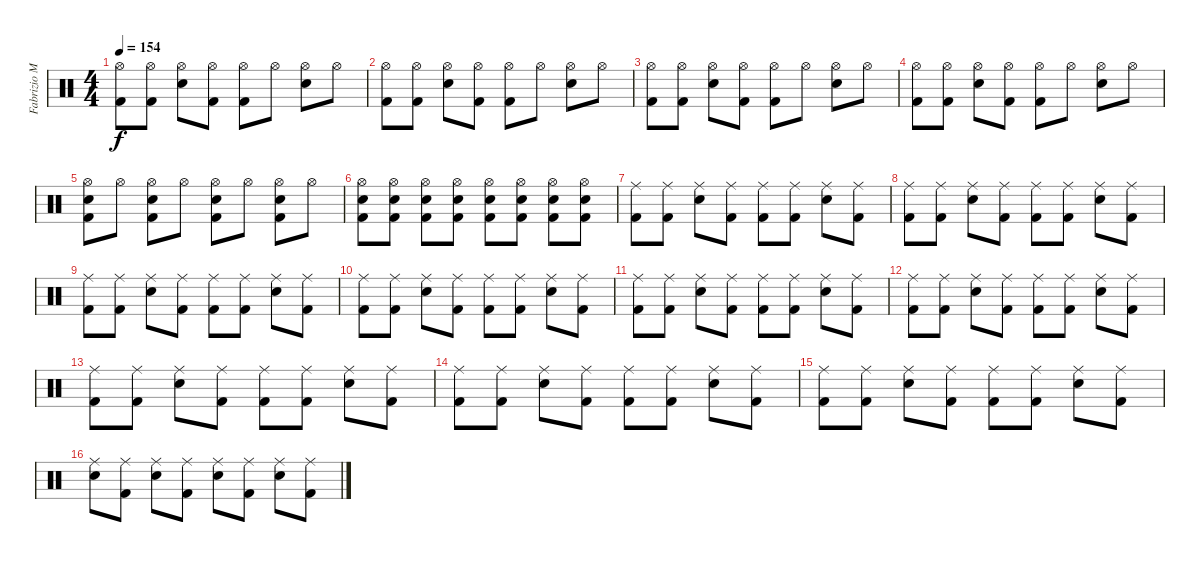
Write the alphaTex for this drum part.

\track ("Fabrizio Moretti" "Fabrizio M") {instrument percussion}
\staff {score}
\articulation defaults
\ts (4 4)
\tempo 154
\clef neutral
\ks c
("Hi-Hat (open)" "Kick (hit) 2").8{dy f} ("Hi-Hat (open)" "Kick (hit) 2").8 ("Hi-Hat (open)" "Electric Snare (hit)").8 ("Hi-Hat (open)" "Kick (hit) 2").8 ("Hi-Hat (open)" "Kick (hit) 2").8 "Hi-Hat (open)".8 ("Hi-Hat (open)" "Electric Snare (hit)").8 "Hi-Hat (open)".8 |
("Hi-Hat (open)" "Kick (hit) 2").8 ("Hi-Hat (open)" "Kick (hit) 2").8 ("Hi-Hat (open)" "Electric Snare (hit)").8 ("Hi-Hat (open)" "Kick (hit) 2").8 ("Hi-Hat (open)" "Kick (hit) 2").8 "Hi-Hat (open)".8 ("Hi-Hat (open)" "Electric Snare (hit)").8 "Hi-Hat (open)".8 |
("Hi-Hat (open)" "Kick (hit) 2").8 ("Hi-Hat (open)" "Kick (hit) 2").8 ("Hi-Hat (open)" "Electric Snare (hit)").8 ("Hi-Hat (open)" "Kick (hit) 2").8 ("Hi-Hat (open)" "Kick (hit) 2").8 "Hi-Hat (open)".8 ("Hi-Hat (open)" "Electric Snare (hit)").8 "Hi-Hat (open)".8 |
("Hi-Hat (open)" "Kick (hit) 2").8 ("Hi-Hat (open)" "Kick (hit) 2").8 ("Hi-Hat (open)" "Electric Snare (hit)").8 ("Hi-Hat (open)" "Kick (hit) 2").8 ("Hi-Hat (open)" "Kick (hit) 2").8 "Hi-Hat (open)".8 ("Hi-Hat (open)" "Electric Snare (hit)").8 "Hi-Hat (open)".8 |
("Hi-Hat (open)" "Kick (hit) 2" "Electric Snare (hit)").8 "Hi-Hat (open)".8 ("Hi-Hat (open)" "Kick (hit) 2" "Electric Snare (hit)").8 "Hi-Hat (open)".8 ("Hi-Hat (open)" "Kick (hit) 2" "Electric Snare (hit)").8 "Hi-Hat (open)".8 ("Hi-Hat (open)" "Kick (hit) 2" "Electric Snare (hit)").8 "Hi-Hat (open)".8 |
("Hi-Hat (open)" "Kick (hit) 2" "Electric Snare (hit)").8 ("Hi-Hat (open)" "Kick (hit) 2" "Electric Snare (hit)").8 ("Hi-Hat (open)" "Kick (hit) 2" "Electric Snare (hit)").8 ("Hi-Hat (open)" "Kick (hit) 2" "Electric Snare (hit)").8 ("Hi-Hat (open)" "Kick (hit) 2" "Electric Snare (hit)").8 ("Hi-Hat (open)" "Kick (hit) 2" "Electric Snare (hit)").8 ("Hi-Hat (open)" "Kick (hit) 2" "Electric Snare (hit)").8 ("Hi-Hat (open)" "Kick (hit) 2" "Electric Snare (hit)").8 |
("Ride (middle)" "Kick (hit) 2").8 ("Ride (middle)" "Kick (hit) 2").8 ("Ride (middle)" "Electric Snare (hit)").8 ("Ride (middle)" "Kick (hit) 2").8 ("Ride (middle)" "Kick (hit) 2").8 ("Ride (middle)" "Kick (hit) 2").8 ("Ride (middle)" "Electric Snare (hit)").8 ("Ride (middle)" "Kick (hit) 2").8 |
("Ride (middle)" "Kick (hit) 2").8 ("Ride (middle)" "Kick (hit) 2").8 ("Ride (middle)" "Electric Snare (hit)").8 ("Ride (middle)" "Kick (hit) 2").8 ("Ride (middle)" "Kick (hit) 2").8 ("Ride (middle)" "Kick (hit) 2").8 ("Ride (middle)" "Electric Snare (hit)").8 ("Ride (middle)" "Kick (hit) 2").8 |
("Ride (middle)" "Kick (hit) 2").8 ("Ride (middle)" "Kick (hit) 2").8 ("Ride (middle)" "Electric Snare (hit)").8 ("Ride (middle)" "Kick (hit) 2").8 ("Ride (middle)" "Kick (hit) 2").8 ("Ride (middle)" "Kick (hit) 2").8 ("Ride (middle)" "Electric Snare (hit)").8 ("Ride (middle)" "Kick (hit) 2").8 |
("Ride (middle)" "Kick (hit) 2").8 ("Ride (middle)" "Kick (hit) 2").8 ("Ride (middle)" "Electric Snare (hit)").8 ("Ride (middle)" "Kick (hit) 2").8 ("Ride (middle)" "Kick (hit) 2").8 ("Ride (middle)" "Kick (hit) 2").8 ("Ride (middle)" "Electric Snare (hit)").8 ("Ride (middle)" "Kick (hit) 2").8 |
("Ride (middle)" "Kick (hit) 2").8 ("Ride (middle)" "Kick (hit) 2").8 ("Ride (middle)" "Electric Snare (hit)").8 ("Ride (middle)" "Kick (hit) 2").8 ("Ride (middle)" "Kick (hit) 2").8 ("Ride (middle)" "Kick (hit) 2").8 ("Ride (middle)" "Electric Snare (hit)").8 ("Ride (middle)" "Kick (hit) 2").8 |
("Ride (middle)" "Kick (hit) 2").8 ("Ride (middle)" "Kick (hit) 2").8 ("Ride (middle)" "Electric Snare (hit)").8 ("Ride (middle)" "Kick (hit) 2").8 ("Ride (middle)" "Kick (hit) 2").8 ("Ride (middle)" "Kick (hit) 2").8 ("Ride (middle)" "Electric Snare (hit)").8 ("Ride (middle)" "Kick (hit) 2").8 |
("Ride (middle)" "Kick (hit) 2").8 ("Ride (middle)" "Kick (hit) 2").8 ("Ride (middle)" "Electric Snare (hit)").8 ("Ride (middle)" "Kick (hit) 2").8 ("Ride (middle)" "Kick (hit) 2").8 ("Ride (middle)" "Kick (hit) 2").8 ("Ride (middle)" "Electric Snare (hit)").8 ("Ride (middle)" "Kick (hit) 2").8 |
("Ride (middle)" "Kick (hit) 2").8 ("Ride (middle)" "Kick (hit) 2").8 ("Ride (middle)" "Electric Snare (hit)").8 ("Ride (middle)" "Kick (hit) 2").8 ("Ride (middle)" "Kick (hit) 2").8 ("Ride (middle)" "Kick (hit) 2").8 ("Ride (middle)" "Electric Snare (hit)").8 ("Ride (middle)" "Kick (hit) 2").8 |
("Ride (middle)" "Kick (hit) 2").8 ("Ride (middle)" "Kick (hit) 2").8 ("Ride (middle)" "Electric Snare (hit)").8 ("Ride (middle)" "Kick (hit) 2").8 ("Ride (middle)" "Kick (hit) 2").8 ("Ride (middle)" "Kick (hit) 2").8 ("Ride (middle)" "Electric Snare (hit)").8 ("Ride (middle)" "Kick (hit) 2").8 |
("Ride (middle)" "Electric Snare (hit)").8 ("Ride (middle)" "Kick (hit) 2").8 ("Ride (middle)" "Electric Snare (hit)").8 ("Ride (middle)" "Kick (hit) 2").8 ("Ride (middle)" "Electric Snare (hit)").8 ("Ride (middle)" "Kick (hit) 2").8 ("Ride (middle)" "Electric Snare (hit)").8 ("Ride (middle)" "Kick (hit) 2").8
